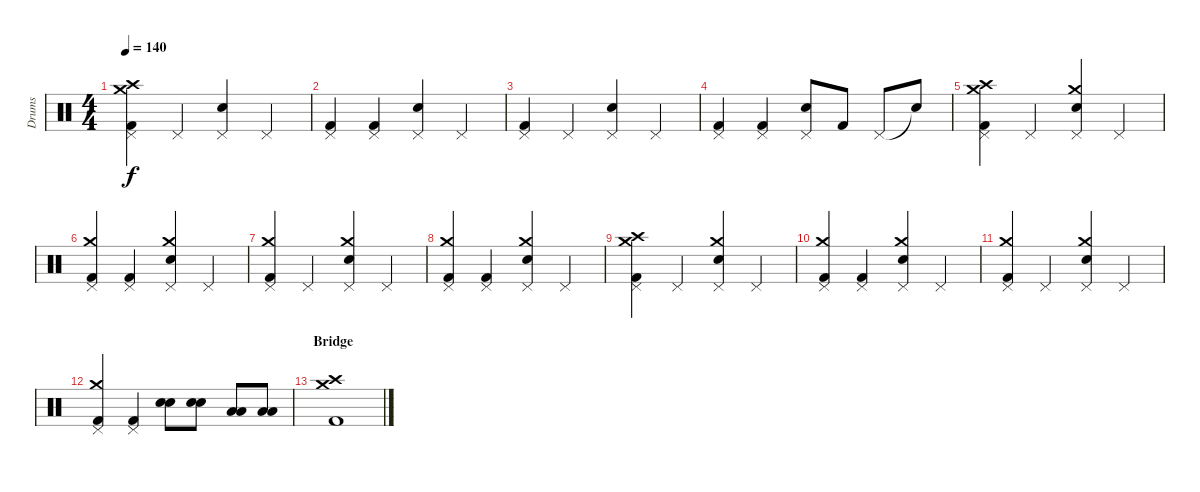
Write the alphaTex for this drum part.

\track ("Drums" "Drums") {instrument percussion}
\staff {score}
\articulation defaults
\ts (4 4)
\tempo 140
\clef neutral
\ks c
("Crash high (hit)" "Pedal Hi-Hat (hit)" "Crash medium (hit)" "Kick (hit) 2").4{dy f} "Pedal Hi-Hat (hit)".4 ("Pedal Hi-Hat (hit)" "Electric Snare (hit)").4 "Pedal Hi-Hat (hit)".4 |
("Pedal Hi-Hat (hit)" "Kick (hit) 2").4 ("Pedal Hi-Hat (hit)" "Kick (hit) 2").4 ("Pedal Hi-Hat (hit)" "Electric Snare (hit)").4 "Pedal Hi-Hat (hit)".4 |
("Pedal Hi-Hat (hit)" "Kick (hit) 2").4 "Pedal Hi-Hat (hit)".4 ("Pedal Hi-Hat (hit)" "Electric Snare (hit)").4 "Pedal Hi-Hat (hit)".4 |
("Pedal Hi-Hat (hit)" "Kick (hit) 2").4 ("Pedal Hi-Hat (hit)" "Kick (hit) 2").4 ("Pedal Hi-Hat (hit)" "Electric Snare (hit)").8 "Kick (hit) 2".8 "Pedal Hi-Hat (hit)".8 "Snare (hit)"{t}.8 |
("Crash high (hit)" "Pedal Hi-Hat (hit)" "Crash medium (hit)" "Kick (hit) 2").4 "Pedal Hi-Hat (hit)".4 ("Crash medium (hit)" "Pedal Hi-Hat (hit)" "Electric Snare (hit)").4 "Pedal Hi-Hat (hit)".4 |
("Crash medium (hit)" "Pedal Hi-Hat (hit)" "Kick (hit) 2").4 ("Pedal Hi-Hat (hit)" "Kick (hit) 2").4 ("Crash medium (hit)" "Pedal Hi-Hat (hit)" "Electric Snare (hit)").4 "Pedal Hi-Hat (hit)".4 |
("Crash medium (hit)" "Pedal Hi-Hat (hit)" "Kick (hit) 2").4 "Pedal Hi-Hat (hit)".4 ("Crash medium (hit)" "Pedal Hi-Hat (hit)" "Electric Snare (hit)").4 "Pedal Hi-Hat (hit)".4 |
("Crash medium (hit)" "Pedal Hi-Hat (hit)" "Kick (hit) 2").4 ("Pedal Hi-Hat (hit)" "Kick (hit) 2").4 ("Crash medium (hit)" "Pedal Hi-Hat (hit)" "Electric Snare (hit)").4 "Pedal Hi-Hat (hit)".4 |
("Crash high (hit)" "Pedal Hi-Hat (hit)" "Crash medium (hit)" "Kick (hit) 2").4 "Pedal Hi-Hat (hit)".4 ("Crash medium (hit)" "Pedal Hi-Hat (hit)" "Electric Snare (hit)").4 "Pedal Hi-Hat (hit)".4 |
("Crash medium (hit)" "Pedal Hi-Hat (hit)" "Kick (hit) 2").4 ("Pedal Hi-Hat (hit)" "Kick (hit) 2").4 ("Crash medium (hit)" "Pedal Hi-Hat (hit)" "Electric Snare (hit)").4 "Pedal Hi-Hat (hit)".4 |
("Crash medium (hit)" "Pedal Hi-Hat (hit)" "Kick (hit) 2").4 "Pedal Hi-Hat (hit)".4 ("Crash medium (hit)" "Pedal Hi-Hat (hit)" "Electric Snare (hit)").4 "Pedal Hi-Hat (hit)".4 |
("Crash medium (hit)" "Pedal Hi-Hat (hit)" "Kick (hit) 2").4 ("Pedal Hi-Hat (hit)" "Kick (hit) 2").4 ("Snare (hit) 2" "Snare (hit) 2").8 ("Snare (hit) 2" "Snare (hit) 2").8 ("Low Tom (hit)" "Low Tom (hit)").8 ("Low Tom (hit)" "Low Tom (hit)").8 |
\section ("" "Bridge")
("Crash medium (hit)" "Crash high (hit)" "Kick (hit) 2").1
